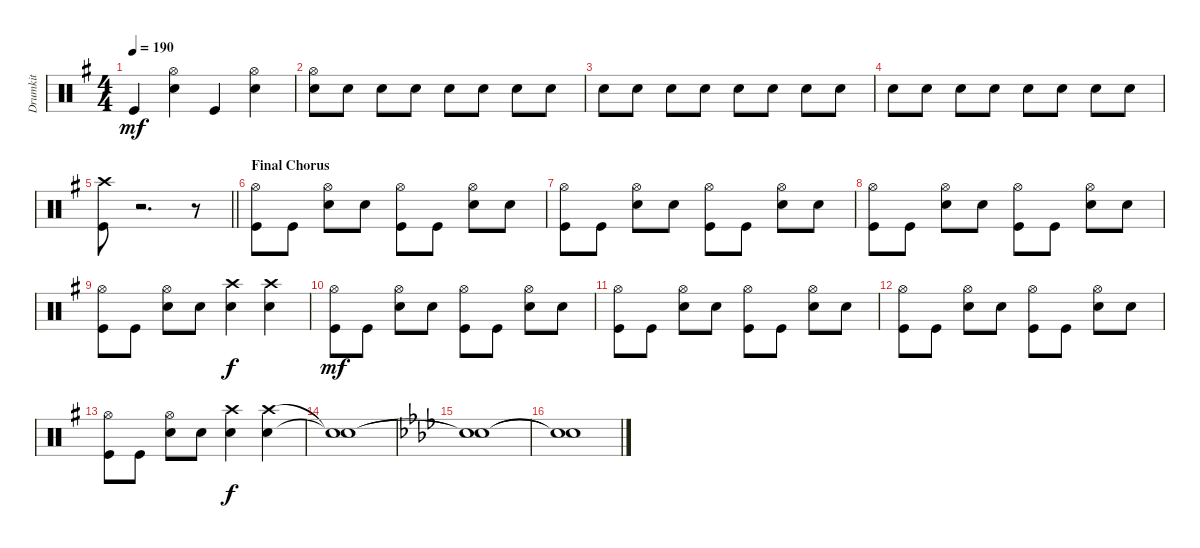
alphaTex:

\track ("Drumkit" "Drumkit") {instrument percussion}
\staff {score}
\articulation defaults
\ts (4 4)
\tempo 190
\clef neutral
\ks eminor "Kick (hit)".4{dy mf}
("Snare (hit) 2" "Hi-Hat (open)").4 "Kick (hit)".4 ("Snare (hit) 2" "Hi-Hat (open)").4 |
("Snare (hit) 2" "Hi-Hat (open)").8 "Snare (hit) 2".8 "Snare (hit) 2".8 "Snare (hit) 2".8 "Snare (hit) 2".8 "Snare (hit) 2".8 "Snare (hit) 2".8 "Snare (hit) 2".8 |
"Snare (hit) 2".8 "Snare (hit) 2".8 "Snare (hit) 2".8 "Snare (hit) 2".8 "Snare (hit) 2".8 "Snare (hit) 2".8 "Snare (hit) 2".8 "Snare (hit) 2".8 |
"Snare (hit) 2".8 "Snare (hit) 2".8 "Snare (hit) 2".8 "Snare (hit) 2".8 "Snare (hit) 2".8 "Snare (hit) 2".8 "Snare (hit) 2".8 "Snare (hit) 2".8 |
\barLineRight lightlight
("Crash high (hit)" "Kick (hit)").8 r.2{d} r.8 |
\section ("" "Final Chorus")
("Kick (hit)" "Hi-Hat (open)").8 "Kick (hit)".8 ("Snare (hit) 2" "Hi-Hat (open)").8 "Snare (hit) 2".8 ("Kick (hit)" "Hi-Hat (open)").8 "Kick (hit)".8 ("Snare (hit) 2" "Hi-Hat (open)").8 "Snare (hit) 2".8 |
("Kick (hit)" "Hi-Hat (open)").8 "Kick (hit)".8 ("Snare (hit) 2" "Hi-Hat (open)").8 "Snare (hit) 2".8 ("Kick (hit)" "Hi-Hat (open)").8 "Kick (hit)".8 ("Snare (hit) 2" "Hi-Hat (open)").8 "Snare (hit) 2".8 |
("Kick (hit)" "Hi-Hat (open)").8 "Kick (hit)".8 ("Snare (hit) 2" "Hi-Hat (open)").8 "Snare (hit) 2".8 ("Kick (hit)" "Hi-Hat (open)").8 "Kick (hit)".8 ("Snare (hit) 2" "Hi-Hat (open)").8 "Snare (hit) 2".8 |
("Kick (hit)" "Hi-Hat (open)").8 "Kick (hit)".8 ("Snare (hit) 2" "Hi-Hat (open)").8 "Snare (hit) 2".8 ("Snare (hit) 2" "Crash high (hit)").4{dy f} ("Snare (hit) 2" "Crash high (hit)").4 |
("Kick (hit)" "Hi-Hat (open)").8{dy mf} "Kick (hit)".8 ("Snare (hit) 2" "Hi-Hat (open)").8 "Snare (hit) 2".8 ("Kick (hit)" "Hi-Hat (open)").8 "Kick (hit)".8 ("Snare (hit) 2" "Hi-Hat (open)").8 "Snare (hit) 2".8 |
("Kick (hit)" "Hi-Hat (open)").8 "Kick (hit)".8 ("Snare (hit) 2" "Hi-Hat (open)").8 "Snare (hit) 2".8 ("Kick (hit)" "Hi-Hat (open)").8 "Kick (hit)".8 ("Snare (hit) 2" "Hi-Hat (open)").8 "Snare (hit) 2".8 |
("Kick (hit)" "Hi-Hat (open)").8 "Kick (hit)".8 ("Snare (hit) 2" "Hi-Hat (open)").8 "Snare (hit) 2".8 ("Kick (hit)" "Hi-Hat (open)").8 "Kick (hit)".8 ("Snare (hit) 2" "Hi-Hat (open)").8 "Snare (hit) 2".8 |
("Kick (hit)" "Hi-Hat (open)").8 "Kick (hit)".8 ("Snare (hit) 2" "Hi-Hat (open)").8 "Snare (hit) 2".8 ("Snare (hit) 2" "Crash high (hit)").4{dy f} ("Snare (hit) 2" "Crash high (hit)").4 |
("Snare (hit)"{t} "Snare (hit)"{t}).1 |
\ks fminor
("Snare (hit)"{t} "Snare (hit)"{t}).1 |
("Snare (hit)"{t} "Snare (hit)"{t}).1
